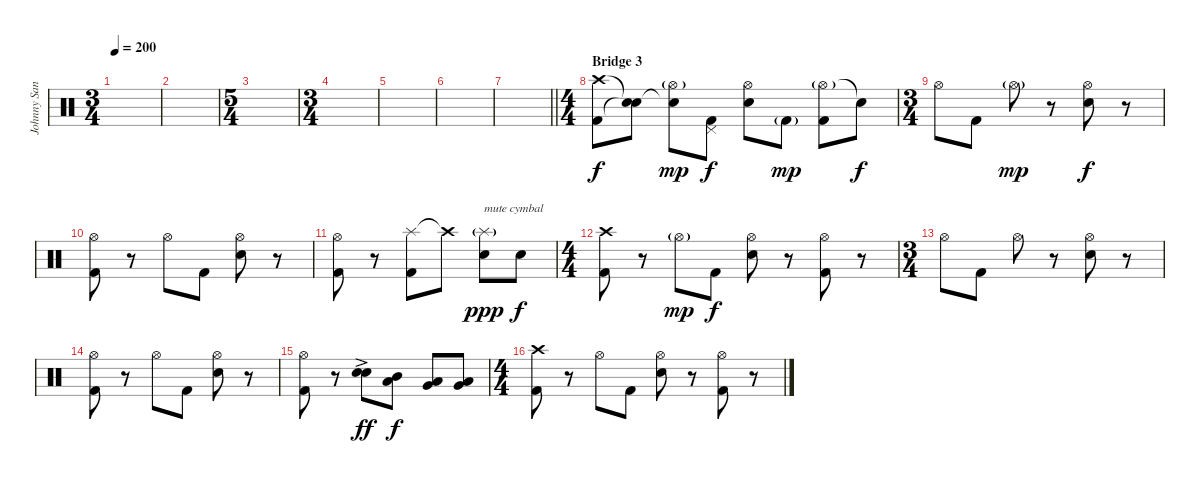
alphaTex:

\track ("Johnny Sandin" "Johnny San") {instrument percussion}
\staff {score}
\articulation defaults
\ts (3 4)
\tempo 200
\clef neutral
\ks c
|
|
\ts (5 4)
|
\ts (3 4)
|
|
|
\barLineRight lightlight
|
\ts (4 4)
\section ("" "Bridge 3")
("Crash high (hit)" "Kick (hit) 2").8 ("Snare (hit)"{t} "Snare (hit)"{t}).8 ("Hi-Hat (open)"{g} "Snare (hit)"{t}).8{dy mp} ("Pedal Hi-Hat (hit)" "Kick (hit) 2").8{dy f} ("Hi-Hat (open)" "Snare (hit) 2").8 "Kick (hit) 2"{g}.8{dy mp} ("Hi-Hat (open)"{g} "Kick (hit) 2").8 "Snare (hit)"{t}.8{dy f} |
\ts (3 4)
"Hi-Hat (open)".8 "Kick (hit) 2".8 "Hi-Hat (open)"{g}.8{dy mp} r.8 ("Hi-Hat (open)" "Snare (hit) 2").8{dy f} r.8 |
("Hi-Hat (open)" "Kick (hit) 2").8 r.8 "Hi-Hat (open)".8 "Kick (hit) 2".8 ("Hi-Hat (open)" "Snare (hit) 2").8 r.8 |
("Hi-Hat (open)" "Kick (hit) 2").8 r.8 ("Splash (hit)" "Kick (hit) 2").8 "Crash high (hit)"{t}.8 ("Splash (hit)"{g} "Snare (hit) 2").8{txt "mute cymbal" dy ppp} "Snare (hit) 2".8{dy f} |
\ts (4 4)
("Crash high (hit)" "Kick (hit) 2").8 r.8 "Hi-Hat (open)"{g}.8{dy mp} "Kick (hit) 2".8{dy f} ("Hi-Hat (open)" "Snare (hit) 2").8 r.8 ("Hi-Hat (open)" "Kick (hit) 2").8 r.8 |
\ts (3 4)
"Hi-Hat (open)".8 "Kick (hit) 2".8 "Hi-Hat (open)".8 r.8 ("Hi-Hat (open)" "Snare (hit) 2").8 r.8 |
("Hi-Hat (open)" "Kick (hit) 2").8 r.8 "Hi-Hat (open)".8 "Kick (hit) 2".8 ("Hi-Hat (open)" "Snare (hit) 2").8 r.8 |
("Hi-Hat (open)" "Kick (hit) 2").8 r.8 ("Snare (hit) 2"{ac} "Snare (hit) 2"{ac}).8{dy ff} ("Mid Tom (hit)" "Low Tom (hit)").8{dy f} ("Low Tom (hit)" "Very Low Tom (hit)").8 ("Very Low Tom (hit)" "Low Floor Tom (hit)").8 |
\ts (4 4)
("Crash high (hit)" "Kick (hit) 2").8 r.8 "Hi-Hat (open)".8 "Kick (hit) 2".8 ("Hi-Hat (open)" "Snare (hit) 2").8 r.8 ("Hi-Hat (open)" "Kick (hit) 2").8 r.8
